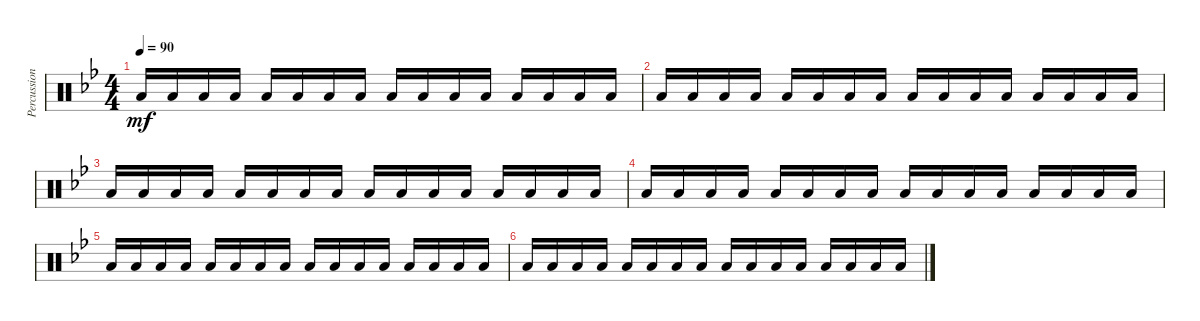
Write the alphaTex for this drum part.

\track ("Percussion" "Percussion") {instrument percussion}
\staff {score}
\articulation defaults
\ts (4 4)
\tempo 90
\clef neutral
\ks bb "Low Floor Tom (hit)".16{dy mf} "Low Floor Tom (hit)".16 "Low Floor Tom (hit)".16 "Low Floor Tom (hit)".16 "Low Floor Tom (hit)".16 "Low Floor Tom (hit)".16 "Low Floor Tom (hit)".16 "Low Floor Tom (hit)".16 "Low Floor Tom (hit)".16 "Low Floor Tom (hit)".16 "Low Floor Tom (hit)".16 "Low Floor Tom (hit)".16 "Low Floor Tom (hit)".16 "Low Floor Tom (hit)".16 "Low Floor Tom (hit)".16 "Low Floor Tom (hit)".16
|
"Low Floor Tom (hit)".16 "Low Floor Tom (hit)".16 "Low Floor Tom (hit)".16 "Low Floor Tom (hit)".16 "Low Floor Tom (hit)".16 "Low Floor Tom (hit)".16 "Low Floor Tom (hit)".16 "Low Floor Tom (hit)".16 "Low Floor Tom (hit)".16 "Low Floor Tom (hit)".16 "Low Floor Tom (hit)".16 "Low Floor Tom (hit)".16 "Low Floor Tom (hit)".16 "Low Floor Tom (hit)".16 "Low Floor Tom (hit)".16 "Low Floor Tom (hit)".16 |
"Low Floor Tom (hit)".16 "Low Floor Tom (hit)".16 "Low Floor Tom (hit)".16 "Low Floor Tom (hit)".16 "Low Floor Tom (hit)".16 "Low Floor Tom (hit)".16 "Low Floor Tom (hit)".16 "Low Floor Tom (hit)".16 "Low Floor Tom (hit)".16 "Low Floor Tom (hit)".16 "Low Floor Tom (hit)".16 "Low Floor Tom (hit)".16 "Low Floor Tom (hit)".16 "Low Floor Tom (hit)".16 "Low Floor Tom (hit)".16 "Low Floor Tom (hit)".16 |
"Low Floor Tom (hit)".16 "Low Floor Tom (hit)".16 "Low Floor Tom (hit)".16 "Low Floor Tom (hit)".16 "Low Floor Tom (hit)".16 "Low Floor Tom (hit)".16 "Low Floor Tom (hit)".16 "Low Floor Tom (hit)".16 "Low Floor Tom (hit)".16 "Low Floor Tom (hit)".16 "Low Floor Tom (hit)".16 "Low Floor Tom (hit)".16 "Low Floor Tom (hit)".16 "Low Floor Tom (hit)".16 "Low Floor Tom (hit)".16 "Low Floor Tom (hit)".16 |
"Low Floor Tom (hit)".16 "Low Floor Tom (hit)".16 "Low Floor Tom (hit)".16 "Low Floor Tom (hit)".16 "Low Floor Tom (hit)".16 "Low Floor Tom (hit)".16 "Low Floor Tom (hit)".16 "Low Floor Tom (hit)".16 "Low Floor Tom (hit)".16 "Low Floor Tom (hit)".16 "Low Floor Tom (hit)".16 "Low Floor Tom (hit)".16 "Low Floor Tom (hit)".16 "Low Floor Tom (hit)".16 "Low Floor Tom (hit)".16 "Low Floor Tom (hit)".16 |
"Low Floor Tom (hit)".16 "Low Floor Tom (hit)".16 "Low Floor Tom (hit)".16 "Low Floor Tom (hit)".16 "Low Floor Tom (hit)".16 "Low Floor Tom (hit)".16 "Low Floor Tom (hit)".16 "Low Floor Tom (hit)".16 "Low Floor Tom (hit)".16 "Low Floor Tom (hit)".16 "Low Floor Tom (hit)".16 "Low Floor Tom (hit)".16 "Low Floor Tom (hit)".16 "Low Floor Tom (hit)".16 "Low Floor Tom (hit)".16 "Low Floor Tom (hit)".16
